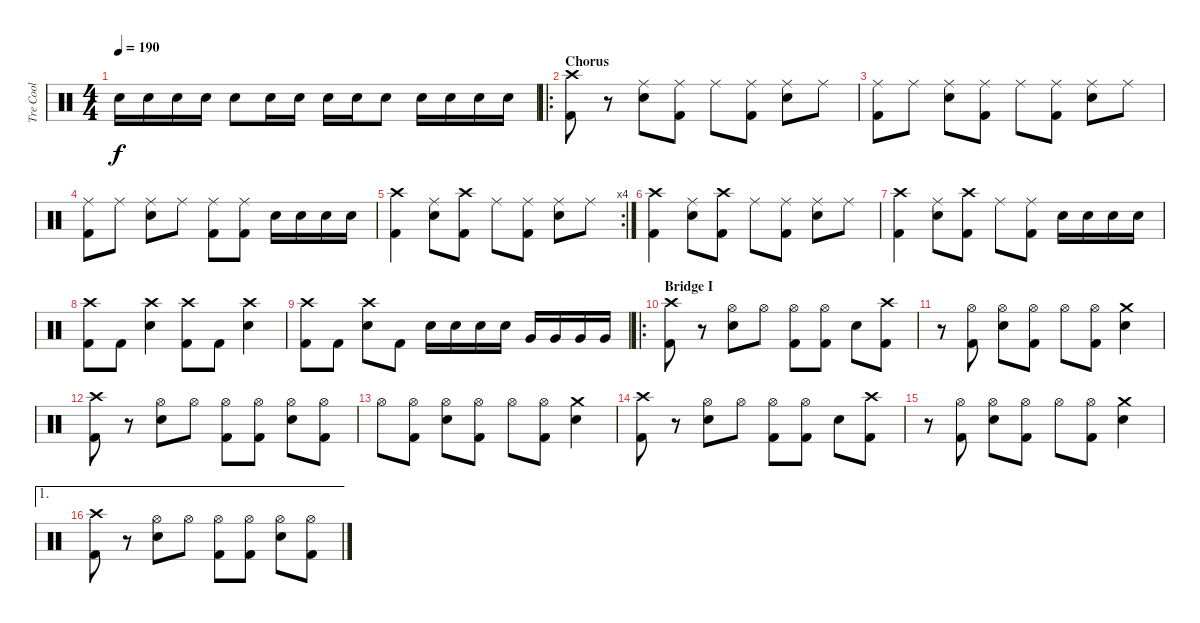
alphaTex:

\track ("Tre Cool" "Tre Cool") {instrument percussion}
\staff {score}
\articulation defaults
\ts (4 4)
\tempo 190
\clef neutral
\ks c "Snare (hit) 2".16{dy f} "Snare (hit) 2".16 "Snare (hit) 2".16 "Snare (hit) 2".16 "Snare (hit) 2".8 "Snare (hit) 2".16 "Snare (hit) 2".16 "Snare (hit) 2".16 "Snare (hit) 2".16 "Snare (hit) 2".8 "Snare (hit) 2".16 "Snare (hit) 2".16 "Snare (hit) 2".16 "Snare (hit) 2".16
|
\ro
\section ("" "Chorus")
("Crash high (hit)" "Kick (hit) 2").8 r.8 ("Ride (middle)" "Snare (hit) 2").8 ("Ride (middle)" "Kick (hit) 2").8 "Ride (middle)".8 ("Ride (middle)" "Kick (hit) 2").8 ("Ride (middle)" "Snare (hit) 2").8 "Ride (middle)".8 |
("Ride (middle)" "Kick (hit) 2").8 "Ride (middle)".8 ("Ride (middle)" "Snare (hit) 2").8 ("Ride (middle)" "Kick (hit) 2").8 "Ride (middle)".8 ("Ride (middle)" "Kick (hit) 2").8 ("Ride (middle)" "Snare (hit) 2").8 "Ride (middle)".8 |
("Ride (middle)" "Kick (hit) 2").8 "Ride (middle)".8 ("Ride (middle)" "Snare (hit) 2").8 "Ride (middle)".8 ("Ride (middle)" "Kick (hit) 2").8 ("Ride (middle)" "Kick (hit) 2").8 "Snare (hit) 2".16 "Snare (hit) 2".16 "Snare (hit) 2".16 "Snare (hit) 2".16 |
\rc 4
("Crash high (hit)" "Kick (hit) 2").4 ("Ride (middle)" "Snare (hit) 2").8 ("Crash high (hit)" "Kick (hit) 2").8 "Ride (middle)".8 ("Ride (middle)" "Kick (hit) 2").8 ("Ride (middle)" "Snare (hit) 2").8 "Ride (middle)".8 |
("Crash high (hit)" "Kick (hit) 2").4 ("Ride (middle)" "Snare (hit) 2").8 ("Crash high (hit)" "Kick (hit) 2").8 "Ride (middle)".8 ("Ride (middle)" "Kick (hit) 2").8 ("Ride (middle)" "Snare (hit) 2").8 "Ride (middle)".8 |
("Crash high (hit)" "Kick (hit) 2").4 ("Ride (middle)" "Snare (hit) 2").8 ("Crash high (hit)" "Kick (hit) 2").8 "Ride (middle)".8 ("Ride (middle)" "Kick (hit) 2").8 "Snare (hit) 2".16 "Snare (hit) 2".16 "Snare (hit) 2".16 "Snare (hit) 2".16 |
("Crash high (hit)" "Kick (hit) 2").8 "Kick (hit) 2".8 ("Crash high (hit)" "Snare (hit) 2").4 ("Crash high (hit)" "Kick (hit) 2").8 "Kick (hit) 2".8 ("Crash high (hit)" "Snare (hit) 2").4 |
("Crash high (hit)" "Kick (hit) 2").8 "Kick (hit) 2".8 ("Crash high (hit)" "Snare (hit) 2").8 "Kick (hit) 2".8 "Snare (hit) 2".16 "Snare (hit) 2".16 "Snare (hit) 2".16 "Snare (hit) 2".16 "Very Low Tom (hit)".16 "Very Low Tom (hit)".16 "Very Low Tom (hit)".16 "Very Low Tom (hit)".16 |
\ro
\section ("" "Bridge I")
("Crash high (hit)" "Kick (hit) 2").8 r.8 ("Hi-Hat (open)" "Electric Snare (hit)").8 "Hi-Hat (open)".8 ("Hi-Hat (open)" "Kick (hit) 2").8 ("Hi-Hat (open)" "Kick (hit) 2").8 "Electric Snare (hit)".8 ("Crash high (hit)" "Kick (hit) 2").8 |
r.8 ("Hi-Hat (open)" "Kick (hit) 2").8 ("Hi-Hat (open)" "Electric Snare (hit)").8 ("Hi-Hat (open)" "Kick (hit) 2").8 "Hi-Hat (open)".8 ("Hi-Hat (open)" "Kick (hit) 2").8 ("Crash medium (hit)" "Electric Snare (hit)").4 |
("Crash high (hit)" "Kick (hit) 2").8 r.8 ("Hi-Hat (open)" "Electric Snare (hit)").8 "Hi-Hat (open)".8 ("Hi-Hat (open)" "Kick (hit) 2").8 ("Hi-Hat (open)" "Kick (hit) 2").8 ("Hi-Hat (open)" "Electric Snare (hit)").8 ("Hi-Hat (open)" "Kick (hit) 2").8 |
"Hi-Hat (open)".8 ("Hi-Hat (open)" "Kick (hit) 2").8 ("Hi-Hat (open)" "Electric Snare (hit)").8 ("Hi-Hat (open)" "Kick (hit) 2").8 "Hi-Hat (open)".8 ("Hi-Hat (open)" "Kick (hit) 2").8 ("Crash medium (hit)" "Electric Snare (hit)").4 |
("Crash high (hit)" "Kick (hit) 2").8 r.8 ("Hi-Hat (open)" "Electric Snare (hit)").8 "Hi-Hat (open)".8 ("Hi-Hat (open)" "Kick (hit) 2").8 ("Hi-Hat (open)" "Kick (hit) 2").8 "Electric Snare (hit)".8 ("Crash high (hit)" "Kick (hit) 2").8 |
r.8 ("Hi-Hat (open)" "Kick (hit) 2").8 ("Hi-Hat (open)" "Electric Snare (hit)").8 ("Hi-Hat (open)" "Kick (hit) 2").8 "Hi-Hat (open)".8 ("Hi-Hat (open)" "Kick (hit) 2").8 ("Crash medium (hit)" "Electric Snare (hit)").4 |
\ae 1
("Crash high (hit)" "Kick (hit) 2").8 r.8 ("Hi-Hat (open)" "Electric Snare (hit)").8 "Hi-Hat (open)".8 ("Hi-Hat (open)" "Kick (hit) 2").8 ("Hi-Hat (open)" "Kick (hit) 2").8 ("Hi-Hat (open)" "Electric Snare (hit)").8 ("Hi-Hat (open)" "Kick (hit) 2").8
